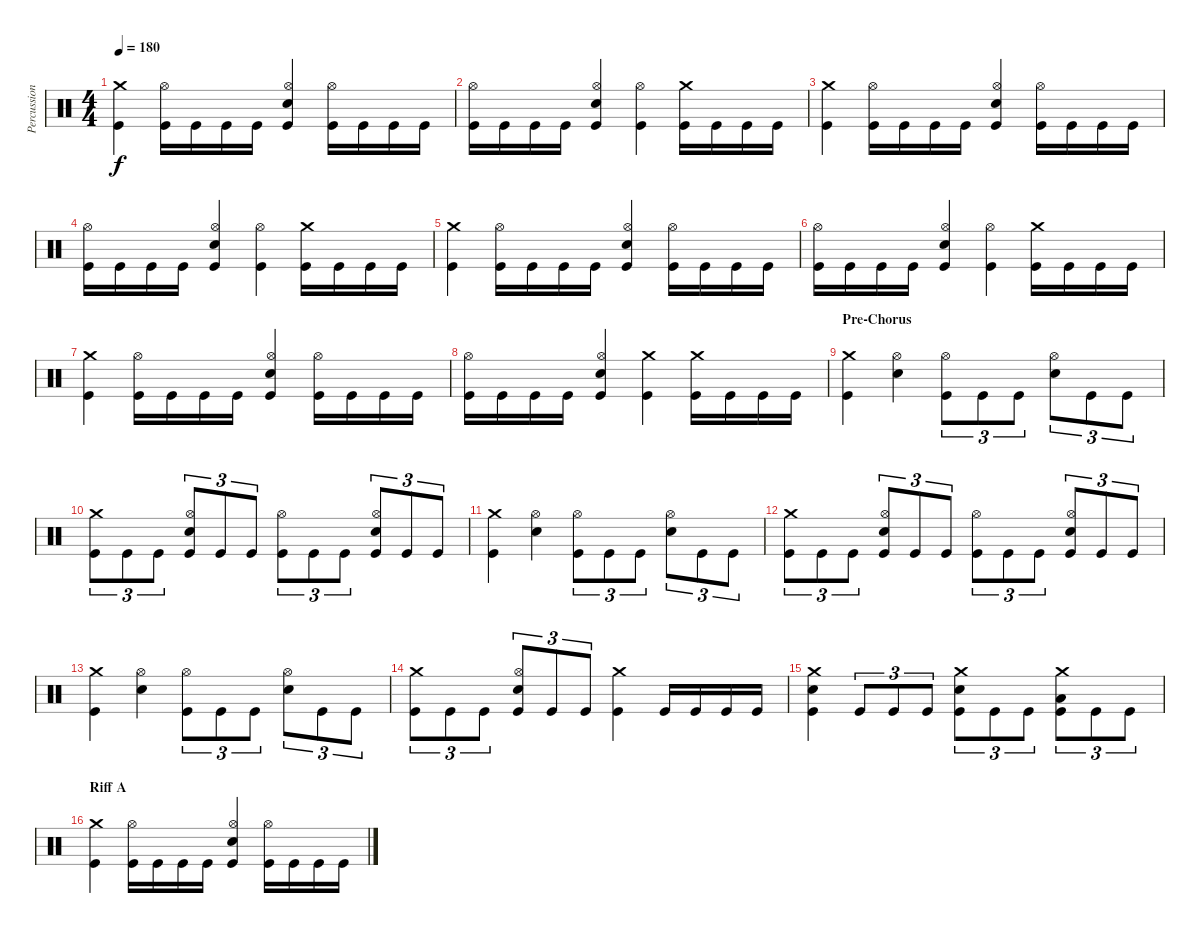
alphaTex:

\track ("Percussion" "Percussion") {instrument percussion}
\staff {score}
\articulation defaults
\ts (4 4)
\tempo 180
\clef neutral
\ks c
("Crash medium (hit)" "Kick (hit)").4{dy f} ("Hi-Hat (open)" "Kick (hit)").16 "Kick (hit)".16 "Kick (hit)".16 "Kick (hit)".16 ("Hi-Hat (open)" "Snare (hit) 2" "Kick (hit)").4 ("Hi-Hat (open)" "Kick (hit)").16 "Kick (hit)".16 "Kick (hit)".16 "Kick (hit)".16 |
("Hi-Hat (open)" "Kick (hit)").16 "Kick (hit)".16 "Kick (hit)".16 "Kick (hit)".16 ("Hi-Hat (open)" "Snare (hit) 2" "Kick (hit)").4 ("Hi-Hat (open)" "Kick (hit)").4 ("Crash medium (hit)" "Kick (hit)").16 "Kick (hit)".16 "Kick (hit)".16 "Kick (hit)".16 |
("Crash medium (hit)" "Kick (hit)").4 ("Hi-Hat (open)" "Kick (hit)").16 "Kick (hit)".16 "Kick (hit)".16 "Kick (hit)".16 ("Hi-Hat (open)" "Snare (hit) 2" "Kick (hit)").4 ("Hi-Hat (open)" "Kick (hit)").16 "Kick (hit)".16 "Kick (hit)".16 "Kick (hit)".16 |
("Hi-Hat (open)" "Kick (hit)").16 "Kick (hit)".16 "Kick (hit)".16 "Kick (hit)".16 ("Hi-Hat (open)" "Snare (hit) 2" "Kick (hit)").4 ("Hi-Hat (open)" "Kick (hit)").4 ("Crash medium (hit)" "Kick (hit)").16 "Kick (hit)".16 "Kick (hit)".16 "Kick (hit)".16 |
("Crash medium (hit)" "Kick (hit)").4 ("Hi-Hat (open)" "Kick (hit)").16 "Kick (hit)".16 "Kick (hit)".16 "Kick (hit)".16 ("Hi-Hat (open)" "Snare (hit) 2" "Kick (hit)").4 ("Hi-Hat (open)" "Kick (hit)").16 "Kick (hit)".16 "Kick (hit)".16 "Kick (hit)".16 |
("Hi-Hat (open)" "Kick (hit)").16 "Kick (hit)".16 "Kick (hit)".16 "Kick (hit)".16 ("Hi-Hat (open)" "Snare (hit) 2" "Kick (hit)").4 ("Hi-Hat (open)" "Kick (hit)").4 ("Crash medium (hit)" "Kick (hit)").16 "Kick (hit)".16 "Kick (hit)".16 "Kick (hit)".16 |
("Crash medium (hit)" "Kick (hit)").4 ("Hi-Hat (open)" "Kick (hit)").16 "Kick (hit)".16 "Kick (hit)".16 "Kick (hit)".16 ("Hi-Hat (open)" "Snare (hit) 2" "Kick (hit)").4 ("Hi-Hat (open)" "Kick (hit)").16 "Kick (hit)".16 "Kick (hit)".16 "Kick (hit)".16 |
("Hi-Hat (open)" "Kick (hit)").16 "Kick (hit)".16 "Kick (hit)".16 "Kick (hit)".16 ("Hi-Hat (open)" "Snare (hit) 2" "Kick (hit)").4 ("Crash medium (hit)" "Kick (hit)").4 ("Crash medium (hit)" "Kick (hit)").16 "Kick (hit)".16 "Kick (hit)".16 "Kick (hit)".16 |
\section ("" "Pre-Chorus")
("Crash medium (hit)" "Kick (hit)").4 ("Hi-Hat (open)" "Electric Snare (hit)").4 ("Hi-Hat (open)" "Kick (hit)").8{tu (3 2)} "Kick (hit)".8{tu (3 2)} "Kick (hit)".8{tu (3 2)} ("Hi-Hat (open)" "Electric Snare (hit)").8{tu (3 2)} "Kick (hit)".8{tu (3 2)} "Kick (hit)".8{tu (3 2)} |
("Crash medium (hit)" "Kick (hit)").8{tu (3 2)} "Kick (hit)".8{tu (3 2)} "Kick (hit)".8{tu (3 2)} ("Hi-Hat (open)" "Electric Snare (hit)" "Kick (hit)").8{tu (3 2)} "Kick (hit)".8{tu (3 2)} "Kick (hit)".8{tu (3 2)} ("Hi-Hat (open)" "Kick (hit)").8{tu (3 2)} "Kick (hit)".8{tu (3 2)} "Kick (hit)".8{tu (3 2)} ("Hi-Hat (open)" "Electric Snare (hit)" "Kick (hit)").8{tu (3 2)} "Kick (hit)".8{tu (3 2)} "Kick (hit)".8{tu (3 2)} |
("Crash medium (hit)" "Kick (hit)").4 ("Hi-Hat (open)" "Electric Snare (hit)").4 ("Hi-Hat (open)" "Kick (hit)").8{tu (3 2)} "Kick (hit)".8{tu (3 2)} "Kick (hit)".8{tu (3 2)} ("Hi-Hat (open)" "Electric Snare (hit)").8{tu (3 2)} "Kick (hit)".8{tu (3 2)} "Kick (hit)".8{tu (3 2)} |
("Crash medium (hit)" "Kick (hit)").8{tu (3 2)} "Kick (hit)".8{tu (3 2)} "Kick (hit)".8{tu (3 2)} ("Hi-Hat (open)" "Electric Snare (hit)" "Kick (hit)").8{tu (3 2)} "Kick (hit)".8{tu (3 2)} "Kick (hit)".8{tu (3 2)} ("Hi-Hat (open)" "Kick (hit)").8{tu (3 2)} "Kick (hit)".8{tu (3 2)} "Kick (hit)".8{tu (3 2)} ("Hi-Hat (open)" "Electric Snare (hit)" "Kick (hit)").8{tu (3 2)} "Kick (hit)".8{tu (3 2)} "Kick (hit)".8{tu (3 2)} |
("Crash medium (hit)" "Kick (hit)").4 ("Hi-Hat (open)" "Electric Snare (hit)").4 ("Hi-Hat (open)" "Kick (hit)").8{tu (3 2)} "Kick (hit)".8{tu (3 2)} "Kick (hit)".8{tu (3 2)} ("Hi-Hat (open)" "Electric Snare (hit)").8{tu (3 2)} "Kick (hit)".8{tu (3 2)} "Kick (hit)".8{tu (3 2)} |
("Crash medium (hit)" "Kick (hit)").8{tu (3 2)} "Kick (hit)".8{tu (3 2)} "Kick (hit)".8{tu (3 2)} ("Hi-Hat (open)" "Electric Snare (hit)" "Kick (hit)").8{tu (3 2)} "Kick (hit)".8{tu (3 2)} "Kick (hit)".8{tu (3 2)} ("Crash medium (hit)" "Kick (hit)").4 "Kick (hit)".16 "Kick (hit)".16 "Kick (hit)".16 "Kick (hit)".16 |
("Crash medium (hit)" "Electric Snare (hit)" "Kick (hit)").4 "Kick (hit)".8{tu (3 2)} "Kick (hit)".8{tu (3 2)} "Kick (hit)".8{tu (3 2)} ("Crash medium (hit)" "Electric Snare (hit)" "Kick (hit)").8{tu (3 2)} "Kick (hit)".8{tu (3 2)} "Kick (hit)".8{tu (3 2)} ("Crash medium (hit)" "Low Tom (hit)" "Kick (hit)").8{tu (3 2)} "Kick (hit)".8{tu (3 2)} "Kick (hit)".8{tu (3 2)} |
\section ("" "Riff A")
("Crash medium (hit)" "Kick (hit)").4 ("Hi-Hat (open)" "Kick (hit)").16 "Kick (hit)".16 "Kick (hit)".16 "Kick (hit)".16 ("Hi-Hat (open)" "Snare (hit) 2" "Kick (hit)").4 ("Hi-Hat (open)" "Kick (hit)").16 "Kick (hit)".16 "Kick (hit)".16 "Kick (hit)".16
